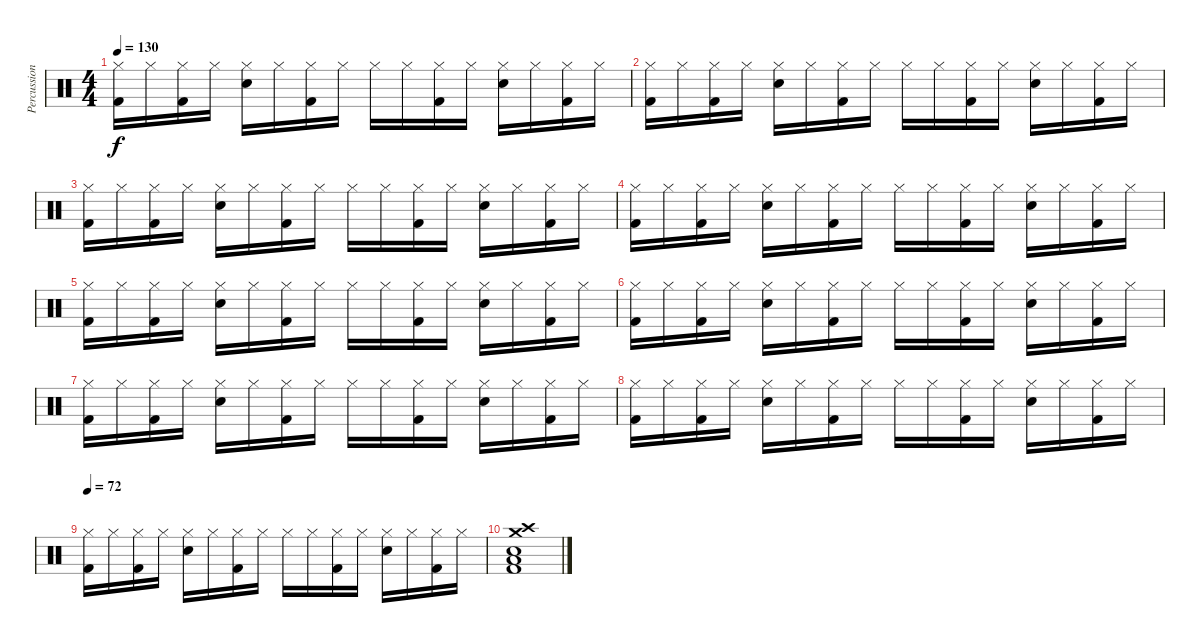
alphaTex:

\track ("Percussions" "Percussion") {instrument percussion}
\staff {score}
\articulation defaults
\ts (4 4)
\tempo 130
\clef neutral
\ks c
("Hi-Hat (closed)" "Kick (hit) 2").16{dy f} "Hi-Hat (closed)".16 ("Hi-Hat (closed)" "Kick (hit) 2").16 "Hi-Hat (closed)".16 ("Hi-Hat (closed)" "Snare (hit) 2").16 "Hi-Hat (closed)".16 ("Hi-Hat (closed)" "Kick (hit) 2").16 "Hi-Hat (closed)".16 "Hi-Hat (closed)".16 "Hi-Hat (closed)".16 ("Hi-Hat (closed)" "Kick (hit) 2").16 "Hi-Hat (closed)".16 ("Hi-Hat (closed)" "Snare (hit) 2").16 "Hi-Hat (closed)".16 ("Hi-Hat (closed)" "Kick (hit) 2").16 "Hi-Hat (closed)".16 |
("Hi-Hat (closed)" "Kick (hit) 2").16 "Hi-Hat (closed)".16 ("Hi-Hat (closed)" "Kick (hit) 2").16 "Hi-Hat (closed)".16 ("Hi-Hat (closed)" "Snare (hit) 2").16 "Hi-Hat (closed)".16 ("Hi-Hat (closed)" "Kick (hit) 2").16 "Hi-Hat (closed)".16 "Hi-Hat (closed)".16 "Hi-Hat (closed)".16 ("Hi-Hat (closed)" "Kick (hit) 2").16 "Hi-Hat (closed)".16 ("Hi-Hat (closed)" "Snare (hit) 2").16 "Hi-Hat (closed)".16 ("Hi-Hat (closed)" "Kick (hit) 2").16 "Hi-Hat (closed)".16 |
("Hi-Hat (closed)" "Kick (hit) 2").16 "Hi-Hat (closed)".16 ("Hi-Hat (closed)" "Kick (hit) 2").16 "Hi-Hat (closed)".16 ("Hi-Hat (closed)" "Snare (hit) 2").16 "Hi-Hat (closed)".16 ("Hi-Hat (closed)" "Kick (hit) 2").16 "Hi-Hat (closed)".16 "Hi-Hat (closed)".16 "Hi-Hat (closed)".16 ("Hi-Hat (closed)" "Kick (hit) 2").16 "Hi-Hat (closed)".16 ("Hi-Hat (closed)" "Snare (hit) 2").16 "Hi-Hat (closed)".16 ("Hi-Hat (closed)" "Kick (hit) 2").16 "Hi-Hat (closed)".16 |
("Hi-Hat (closed)" "Kick (hit) 2").16 "Hi-Hat (closed)".16 ("Hi-Hat (closed)" "Kick (hit) 2").16 "Hi-Hat (closed)".16 ("Hi-Hat (closed)" "Snare (hit) 2").16 "Hi-Hat (closed)".16 ("Hi-Hat (closed)" "Kick (hit) 2").16 "Hi-Hat (closed)".16 "Hi-Hat (closed)".16 "Hi-Hat (closed)".16 ("Hi-Hat (closed)" "Kick (hit) 2").16 "Hi-Hat (closed)".16 ("Hi-Hat (closed)" "Snare (hit) 2").16 "Hi-Hat (closed)".16 ("Hi-Hat (closed)" "Kick (hit) 2").16 "Hi-Hat (closed)".16 |
("Hi-Hat (closed)" "Kick (hit) 2").16 "Hi-Hat (closed)".16 ("Hi-Hat (closed)" "Kick (hit) 2").16 "Hi-Hat (closed)".16 ("Hi-Hat (closed)" "Snare (hit) 2").16 "Hi-Hat (closed)".16 ("Hi-Hat (closed)" "Kick (hit) 2").16 "Hi-Hat (closed)".16 "Hi-Hat (closed)".16 "Hi-Hat (closed)".16 ("Hi-Hat (closed)" "Kick (hit) 2").16 "Hi-Hat (closed)".16 ("Hi-Hat (closed)" "Snare (hit) 2").16 "Hi-Hat (closed)".16 ("Hi-Hat (closed)" "Kick (hit) 2").16 "Hi-Hat (closed)".16 |
("Hi-Hat (closed)" "Kick (hit) 2").16 "Hi-Hat (closed)".16 ("Hi-Hat (closed)" "Kick (hit) 2").16 "Hi-Hat (closed)".16 ("Hi-Hat (closed)" "Snare (hit) 2").16 "Hi-Hat (closed)".16 ("Hi-Hat (closed)" "Kick (hit) 2").16 "Hi-Hat (closed)".16 "Hi-Hat (closed)".16 "Hi-Hat (closed)".16 ("Hi-Hat (closed)" "Kick (hit) 2").16 "Hi-Hat (closed)".16 ("Hi-Hat (closed)" "Snare (hit) 2").16 "Hi-Hat (closed)".16 ("Hi-Hat (closed)" "Kick (hit) 2").16 "Hi-Hat (closed)".16 |
("Hi-Hat (closed)" "Kick (hit) 2").16 "Hi-Hat (closed)".16 ("Hi-Hat (closed)" "Kick (hit) 2").16 "Hi-Hat (closed)".16 ("Hi-Hat (closed)" "Snare (hit) 2").16 "Hi-Hat (closed)".16 ("Hi-Hat (closed)" "Kick (hit) 2").16 "Hi-Hat (closed)".16 "Hi-Hat (closed)".16 "Hi-Hat (closed)".16 ("Hi-Hat (closed)" "Kick (hit) 2").16 "Hi-Hat (closed)".16 ("Hi-Hat (closed)" "Snare (hit) 2").16 "Hi-Hat (closed)".16 ("Hi-Hat (closed)" "Kick (hit) 2").16 "Hi-Hat (closed)".16 |
("Hi-Hat (closed)" "Kick (hit) 2").16 "Hi-Hat (closed)".16 ("Hi-Hat (closed)" "Kick (hit) 2").16 "Hi-Hat (closed)".16 ("Hi-Hat (closed)" "Snare (hit) 2").16 "Hi-Hat (closed)".16 ("Hi-Hat (closed)" "Kick (hit) 2").16 "Hi-Hat (closed)".16 "Hi-Hat (closed)".16 "Hi-Hat (closed)".16 ("Hi-Hat (closed)" "Kick (hit) 2").16 "Hi-Hat (closed)".16 ("Hi-Hat (closed)" "Snare (hit) 2").16 "Hi-Hat (closed)".16 ("Hi-Hat (closed)" "Kick (hit) 2").16 "Hi-Hat (closed)".16 |
\tempo 72
("Hi-Hat (closed)" "Kick (hit) 2").16 "Hi-Hat (closed)".16 ("Hi-Hat (closed)" "Kick (hit) 2").16 "Hi-Hat (closed)".16 ("Hi-Hat (closed)" "Snare (hit) 2").16 "Hi-Hat (closed)".16 ("Hi-Hat (closed)" "Kick (hit) 2").16 "Hi-Hat (closed)".16 "Hi-Hat (closed)".16 "Hi-Hat (closed)".16 ("Hi-Hat (closed)" "Kick (hit) 2").16 "Hi-Hat (closed)".16 ("Hi-Hat (closed)" "Snare (hit) 2").16 "Hi-Hat (closed)".16 ("Hi-Hat (closed)" "Kick (hit) 2").16 "Hi-Hat (closed)".16 |
("Crash high (hit)" "Crash medium (hit)" "Snare (hit) 2" "Low Floor Tom (hit)" "Kick (hit) 2").1
